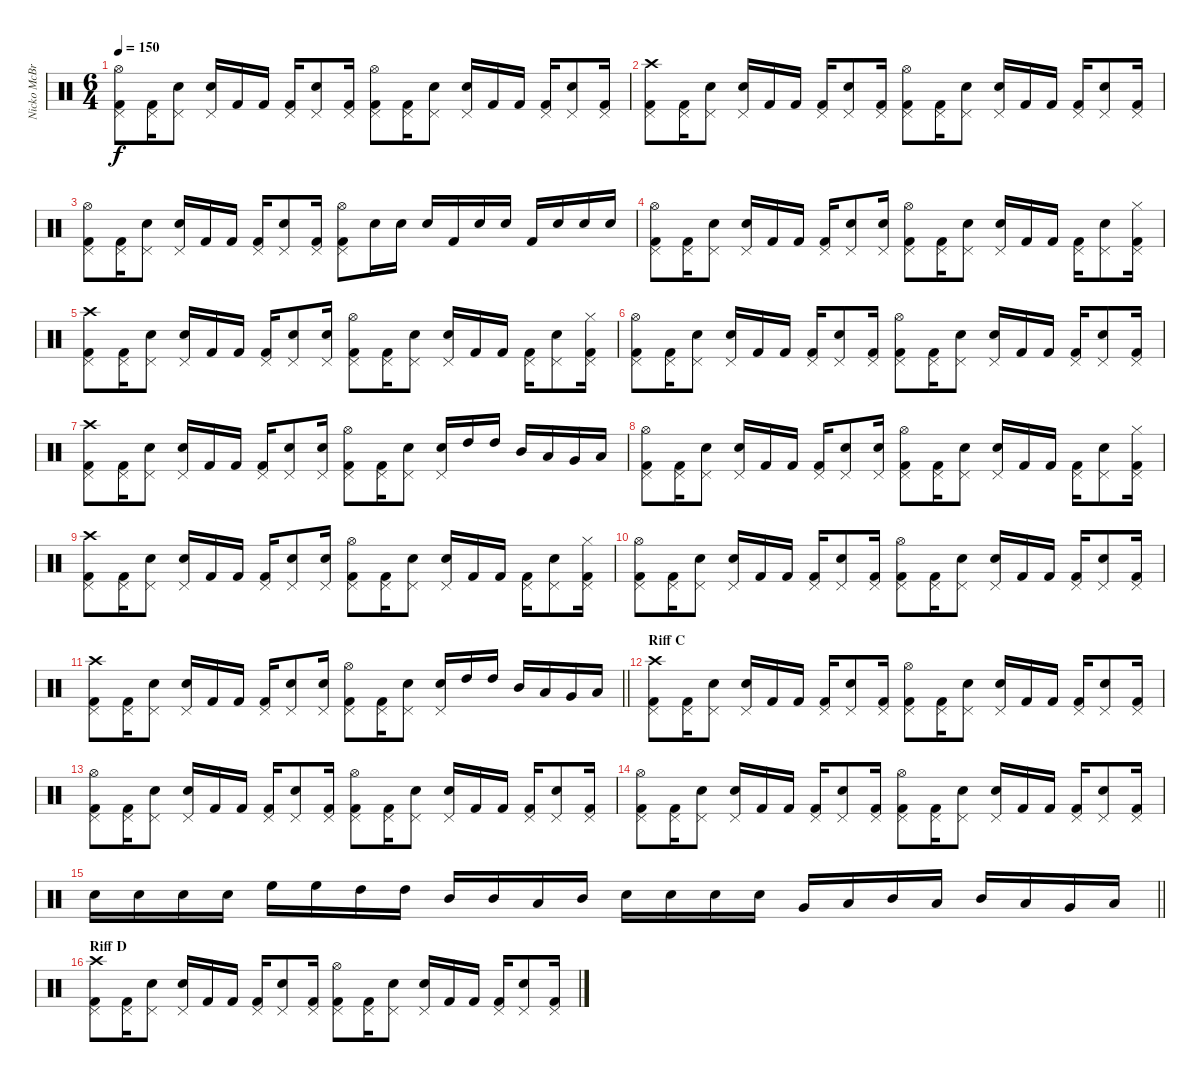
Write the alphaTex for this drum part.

\track ("Nicko McBrain" "Nicko McBr") {instrument percussion}
\staff {score}
\articulation defaults
\ts (6 4)
\tempo 150
\clef neutral
\ks c
("Kick (hit) 2" "Pedal Hi-Hat (hit)" "Hi-Hat (open)").8{dy f} ("Kick (hit) 2" "Pedal Hi-Hat (hit)").16 ("Snare (hit) 2" "Pedal Hi-Hat (hit)").8 ("Snare (hit) 2" "Pedal Hi-Hat (hit)").16 "Kick (hit) 2".16 "Kick (hit) 2".16 ("Kick (hit) 2" "Pedal Hi-Hat (hit)").16 ("Snare (hit) 2" "Pedal Hi-Hat (hit)").8 ("Kick (hit) 2" "Pedal Hi-Hat (hit)").16 ("Kick (hit) 2" "Pedal Hi-Hat (hit)" "Hi-Hat (open)").8 ("Kick (hit) 2" "Pedal Hi-Hat (hit)").16 ("Snare (hit) 2" "Pedal Hi-Hat (hit)").8 ("Snare (hit) 2" "Pedal Hi-Hat (hit)").16 "Kick (hit) 2".16 "Kick (hit) 2".16 ("Kick (hit) 2" "Pedal Hi-Hat (hit)").16 ("Snare (hit) 2" "Pedal Hi-Hat (hit)").8 ("Kick (hit) 2" "Pedal Hi-Hat (hit)").16 |
("Kick (hit) 2" "Pedal Hi-Hat (hit)" "Crash high (hit)").8 ("Kick (hit) 2" "Pedal Hi-Hat (hit)").16 ("Snare (hit) 2" "Pedal Hi-Hat (hit)").8 ("Snare (hit) 2" "Pedal Hi-Hat (hit)").16 "Kick (hit) 2".16 "Kick (hit) 2".16 ("Kick (hit) 2" "Pedal Hi-Hat (hit)").16 ("Snare (hit) 2" "Pedal Hi-Hat (hit)").8 ("Kick (hit) 2" "Pedal Hi-Hat (hit)").16 ("Kick (hit) 2" "Pedal Hi-Hat (hit)" "Hi-Hat (open)").8 ("Kick (hit) 2" "Pedal Hi-Hat (hit)").16 ("Snare (hit) 2" "Pedal Hi-Hat (hit)").8 ("Snare (hit) 2" "Pedal Hi-Hat (hit)").16 "Kick (hit) 2".16 "Kick (hit) 2".16 ("Kick (hit) 2" "Pedal Hi-Hat (hit)").16 ("Snare (hit) 2" "Pedal Hi-Hat (hit)").8 ("Kick (hit) 2" "Pedal Hi-Hat (hit)").16 |
("Kick (hit) 2" "Pedal Hi-Hat (hit)" "Hi-Hat (open)").8 ("Kick (hit) 2" "Pedal Hi-Hat (hit)").16 ("Snare (hit) 2" "Pedal Hi-Hat (hit)").8 ("Snare (hit) 2" "Pedal Hi-Hat (hit)").16 "Kick (hit) 2".16 "Kick (hit) 2".16 ("Kick (hit) 2" "Pedal Hi-Hat (hit)").16 ("Snare (hit) 2" "Pedal Hi-Hat (hit)").8 ("Kick (hit) 2" "Pedal Hi-Hat (hit)").16 ("Kick (hit) 2" "Pedal Hi-Hat (hit)" "Hi-Hat (open)").8 "Snare (hit) 2".16 "Snare (hit) 2".16 "Snare (hit) 2".16 "Kick (hit) 2".16 "Snare (hit) 2".16 "Snare (hit) 2".16 "Kick (hit) 2".16 "Snare (hit) 2".16 "Snare (hit) 2".16 "Snare (hit) 2".16 |
("Kick (hit) 2" "Pedal Hi-Hat (hit)" "Hi-Hat (open)").8 ("Kick (hit) 2" "Pedal Hi-Hat (hit)").16 ("Snare (hit) 2" "Pedal Hi-Hat (hit)").8 ("Snare (hit) 2" "Pedal Hi-Hat (hit)").16 "Kick (hit) 2".16 "Kick (hit) 2".16 ("Kick (hit) 2" "Pedal Hi-Hat (hit)").16 ("Snare (hit) 2" "Pedal Hi-Hat (hit)").8 ("Snare (hit) 2" "Pedal Hi-Hat (hit)").16 ("Kick (hit) 2" "Pedal Hi-Hat (hit)" "Hi-Hat (open)").8 ("Kick (hit) 2" "Pedal Hi-Hat (hit)").16 ("Snare (hit) 2" "Pedal Hi-Hat (hit)").8 ("Snare (hit) 2" "Pedal Hi-Hat (hit)").16 "Kick (hit) 2".16 "Kick (hit) 2".16 ("Kick (hit) 2" "Pedal Hi-Hat (hit)").16 ("Snare (hit) 2" "Pedal Hi-Hat (hit)").8 ("Kick (hit) 2" "Pedal Hi-Hat (hit)" "Hi-Hat (closed)").16 |
("Kick (hit) 2" "Pedal Hi-Hat (hit)" "Crash high (hit)").8 ("Kick (hit) 2" "Pedal Hi-Hat (hit)").16 ("Snare (hit) 2" "Pedal Hi-Hat (hit)").8 ("Snare (hit) 2" "Pedal Hi-Hat (hit)").16 "Kick (hit) 2".16 "Kick (hit) 2".16 ("Kick (hit) 2" "Pedal Hi-Hat (hit)").16 ("Snare (hit) 2" "Pedal Hi-Hat (hit)").8 ("Snare (hit) 2" "Pedal Hi-Hat (hit)").16 ("Kick (hit) 2" "Pedal Hi-Hat (hit)" "Hi-Hat (open)").8 ("Kick (hit) 2" "Pedal Hi-Hat (hit)").16 ("Snare (hit) 2" "Pedal Hi-Hat (hit)").8 ("Snare (hit) 2" "Pedal Hi-Hat (hit)").16 "Kick (hit) 2".16 "Kick (hit) 2".16 ("Kick (hit) 2" "Pedal Hi-Hat (hit)").16 ("Snare (hit) 2" "Pedal Hi-Hat (hit)").8 ("Kick (hit) 2" "Pedal Hi-Hat (hit)" "Hi-Hat (closed)").16 |
("Kick (hit) 2" "Pedal Hi-Hat (hit)" "Hi-Hat (open)").8 ("Kick (hit) 2" "Pedal Hi-Hat (hit)").16 ("Snare (hit) 2" "Pedal Hi-Hat (hit)").8 ("Snare (hit) 2" "Pedal Hi-Hat (hit)").16 "Kick (hit) 2".16 "Kick (hit) 2".16 ("Kick (hit) 2" "Pedal Hi-Hat (hit)").16 ("Snare (hit) 2" "Pedal Hi-Hat (hit)").8 ("Kick (hit) 2" "Pedal Hi-Hat (hit)").16 ("Kick (hit) 2" "Pedal Hi-Hat (hit)" "Hi-Hat (open)").8 ("Kick (hit) 2" "Pedal Hi-Hat (hit)").16 ("Snare (hit) 2" "Pedal Hi-Hat (hit)").8 ("Snare (hit) 2" "Pedal Hi-Hat (hit)").16 "Kick (hit) 2".16 "Kick (hit) 2".16 ("Kick (hit) 2" "Pedal Hi-Hat (hit)").16 ("Snare (hit) 2" "Pedal Hi-Hat (hit)").8 ("Kick (hit) 2" "Pedal Hi-Hat (hit)").16 |
("Kick (hit) 2" "Pedal Hi-Hat (hit)" "Crash high (hit)").8 ("Kick (hit) 2" "Pedal Hi-Hat (hit)").16 ("Snare (hit) 2" "Pedal Hi-Hat (hit)").8 ("Snare (hit) 2" "Pedal Hi-Hat (hit)").16 "Kick (hit) 2".16 "Kick (hit) 2".16 ("Kick (hit) 2" "Pedal Hi-Hat (hit)").16 ("Snare (hit) 2" "Pedal Hi-Hat (hit)").8 ("Snare (hit) 2" "Pedal Hi-Hat (hit)").16 ("Kick (hit) 2" "Pedal Hi-Hat (hit)" "Hi-Hat (open)").8 ("Kick (hit) 2" "Pedal Hi-Hat (hit)").16 ("Snare (hit) 2" "Pedal Hi-Hat (hit)").8 ("Snare (hit) 2" "Pedal Hi-Hat (hit)").16 "High Tom (hit)".16 "High Tom (hit)".16 "Mid Tom (hit)".16 "Low Tom (hit)".16 "Very Low Tom (hit)".16 "Low Floor Tom (hit)".16 |
("Kick (hit) 2" "Pedal Hi-Hat (hit)" "Hi-Hat (open)").8 ("Kick (hit) 2" "Pedal Hi-Hat (hit)").16 ("Snare (hit) 2" "Pedal Hi-Hat (hit)").8 ("Snare (hit) 2" "Pedal Hi-Hat (hit)").16 "Kick (hit) 2".16 "Kick (hit) 2".16 ("Kick (hit) 2" "Pedal Hi-Hat (hit)").16 ("Snare (hit) 2" "Pedal Hi-Hat (hit)").8 ("Snare (hit) 2" "Pedal Hi-Hat (hit)").16 ("Kick (hit) 2" "Pedal Hi-Hat (hit)" "Hi-Hat (open)").8 ("Kick (hit) 2" "Pedal Hi-Hat (hit)").16 ("Snare (hit) 2" "Pedal Hi-Hat (hit)").8 ("Snare (hit) 2" "Pedal Hi-Hat (hit)").16 "Kick (hit) 2".16 "Kick (hit) 2".16 ("Kick (hit) 2" "Pedal Hi-Hat (hit)").16 ("Snare (hit) 2" "Pedal Hi-Hat (hit)").8 ("Kick (hit) 2" "Pedal Hi-Hat (hit)" "Hi-Hat (closed)").16 |
("Kick (hit) 2" "Pedal Hi-Hat (hit)" "Crash high (hit)").8 ("Kick (hit) 2" "Pedal Hi-Hat (hit)").16 ("Snare (hit) 2" "Pedal Hi-Hat (hit)").8 ("Snare (hit) 2" "Pedal Hi-Hat (hit)").16 "Kick (hit) 2".16 "Kick (hit) 2".16 ("Kick (hit) 2" "Pedal Hi-Hat (hit)").16 ("Snare (hit) 2" "Pedal Hi-Hat (hit)").8 ("Snare (hit) 2" "Pedal Hi-Hat (hit)").16 ("Kick (hit) 2" "Pedal Hi-Hat (hit)" "Hi-Hat (open)").8 ("Kick (hit) 2" "Pedal Hi-Hat (hit)").16 ("Snare (hit) 2" "Pedal Hi-Hat (hit)").8 ("Snare (hit) 2" "Pedal Hi-Hat (hit)").16 "Kick (hit) 2".16 "Kick (hit) 2".16 ("Kick (hit) 2" "Pedal Hi-Hat (hit)").16 ("Snare (hit) 2" "Pedal Hi-Hat (hit)").8 ("Kick (hit) 2" "Pedal Hi-Hat (hit)" "Hi-Hat (closed)").16 |
("Kick (hit) 2" "Pedal Hi-Hat (hit)" "Hi-Hat (open)").8 ("Kick (hit) 2" "Pedal Hi-Hat (hit)").16 ("Snare (hit) 2" "Pedal Hi-Hat (hit)").8 ("Snare (hit) 2" "Pedal Hi-Hat (hit)").16 "Kick (hit) 2".16 "Kick (hit) 2".16 ("Kick (hit) 2" "Pedal Hi-Hat (hit)").16 ("Snare (hit) 2" "Pedal Hi-Hat (hit)").8 ("Kick (hit) 2" "Pedal Hi-Hat (hit)").16 ("Kick (hit) 2" "Pedal Hi-Hat (hit)" "Hi-Hat (open)").8 ("Kick (hit) 2" "Pedal Hi-Hat (hit)").16 ("Snare (hit) 2" "Pedal Hi-Hat (hit)").8 ("Snare (hit) 2" "Pedal Hi-Hat (hit)").16 "Kick (hit) 2".16 "Kick (hit) 2".16 ("Kick (hit) 2" "Pedal Hi-Hat (hit)").16 ("Snare (hit) 2" "Pedal Hi-Hat (hit)").8 ("Kick (hit) 2" "Pedal Hi-Hat (hit)").16 |
\barLineRight lightlight
("Kick (hit) 2" "Pedal Hi-Hat (hit)" "Crash high (hit)").8 ("Kick (hit) 2" "Pedal Hi-Hat (hit)").16 ("Snare (hit) 2" "Pedal Hi-Hat (hit)").8 ("Snare (hit) 2" "Pedal Hi-Hat (hit)").16 "Kick (hit) 2".16 "Kick (hit) 2".16 ("Kick (hit) 2" "Pedal Hi-Hat (hit)").16 ("Snare (hit) 2" "Pedal Hi-Hat (hit)").8 ("Snare (hit) 2" "Pedal Hi-Hat (hit)").16 ("Kick (hit) 2" "Pedal Hi-Hat (hit)" "Hi-Hat (open)").8 ("Kick (hit) 2" "Pedal Hi-Hat (hit)").16 ("Snare (hit) 2" "Pedal Hi-Hat (hit)").8 ("Snare (hit) 2" "Pedal Hi-Hat (hit)").16 "High Tom (hit)".16 "High Tom (hit)".16 "Mid Tom (hit)".16 "Low Tom (hit)".16 "Very Low Tom (hit)".16 "Low Floor Tom (hit)".16 |
\section ("" "Riff C")
("Kick (hit) 2" "Pedal Hi-Hat (hit)" "Crash high (hit)").8 ("Kick (hit) 2" "Pedal Hi-Hat (hit)").16 ("Snare (hit) 2" "Pedal Hi-Hat (hit)").8 ("Snare (hit) 2" "Pedal Hi-Hat (hit)").16 "Kick (hit) 2".16 "Kick (hit) 2".16 ("Kick (hit) 2" "Pedal Hi-Hat (hit)").16 ("Snare (hit) 2" "Pedal Hi-Hat (hit)").8 ("Kick (hit) 2" "Pedal Hi-Hat (hit)").16 ("Kick (hit) 2" "Pedal Hi-Hat (hit)" "Hi-Hat (open)").8 ("Kick (hit) 2" "Pedal Hi-Hat (hit)").16 ("Snare (hit) 2" "Pedal Hi-Hat (hit)").8 ("Snare (hit) 2" "Pedal Hi-Hat (hit)").16 "Kick (hit) 2".16 "Kick (hit) 2".16 ("Kick (hit) 2" "Pedal Hi-Hat (hit)").16 ("Snare (hit) 2" "Pedal Hi-Hat (hit)").8 ("Kick (hit) 2" "Pedal Hi-Hat (hit)").16 |
("Kick (hit) 2" "Pedal Hi-Hat (hit)" "Hi-Hat (open)").8 ("Kick (hit) 2" "Pedal Hi-Hat (hit)").16 ("Snare (hit) 2" "Pedal Hi-Hat (hit)").8 ("Snare (hit) 2" "Pedal Hi-Hat (hit)").16 "Kick (hit) 2".16 "Kick (hit) 2".16 ("Kick (hit) 2" "Pedal Hi-Hat (hit)").16 ("Snare (hit) 2" "Pedal Hi-Hat (hit)").8 ("Kick (hit) 2" "Pedal Hi-Hat (hit)").16 ("Kick (hit) 2" "Pedal Hi-Hat (hit)" "Hi-Hat (open)").8 ("Kick (hit) 2" "Pedal Hi-Hat (hit)").16 ("Snare (hit) 2" "Pedal Hi-Hat (hit)").8 ("Snare (hit) 2" "Pedal Hi-Hat (hit)").16 "Kick (hit) 2".16 "Kick (hit) 2".16 ("Kick (hit) 2" "Pedal Hi-Hat (hit)").16 ("Snare (hit) 2" "Pedal Hi-Hat (hit)").8 ("Kick (hit) 2" "Pedal Hi-Hat (hit)").16 |
("Kick (hit) 2" "Pedal Hi-Hat (hit)" "Hi-Hat (open)").8 ("Kick (hit) 2" "Pedal Hi-Hat (hit)").16 ("Snare (hit) 2" "Pedal Hi-Hat (hit)").8 ("Snare (hit) 2" "Pedal Hi-Hat (hit)").16 "Kick (hit) 2".16 "Kick (hit) 2".16 ("Kick (hit) 2" "Pedal Hi-Hat (hit)").16 ("Snare (hit) 2" "Pedal Hi-Hat (hit)").8 ("Kick (hit) 2" "Pedal Hi-Hat (hit)").16 ("Kick (hit) 2" "Pedal Hi-Hat (hit)" "Hi-Hat (open)").8 ("Kick (hit) 2" "Pedal Hi-Hat (hit)").16 ("Snare (hit) 2" "Pedal Hi-Hat (hit)").8 ("Snare (hit) 2" "Pedal Hi-Hat (hit)").16 "Kick (hit) 2".16 "Kick (hit) 2".16 ("Kick (hit) 2" "Pedal Hi-Hat (hit)").16 ("Snare (hit) 2" "Pedal Hi-Hat (hit)").8 ("Kick (hit) 2" "Pedal Hi-Hat (hit)").16 |
\barLineRight lightlight "Snare (hit) 2".16 "Snare (hit) 2".16 "Snare (hit) 2".16 "Snare (hit) 2".16 "High Floor Tom (hit)".16 "High Floor Tom (hit)".16 "High Tom (hit)".16 "High Tom (hit)".16 "Mid Tom (hit)".16 "Mid Tom (hit)".16 "Low Tom (hit)".16 "Mid Tom (hit)".16 "Snare (hit) 2".16 "Snare (hit) 2".16 "Snare (hit) 2".16 "Snare (hit) 2".16 "Very Low Tom (hit)".16 "Low Tom (hit)".16 "Mid Tom (hit)".16 "Low Tom (hit)".16 "Mid Tom (hit)".16 "Low Tom (hit)".16 "Very Low Tom (hit)".16 "Low Floor Tom (hit)".16
|
\section ("" "Riff D")
("Kick (hit) 2" "Pedal Hi-Hat (hit)" "Crash high (hit)").8 ("Kick (hit) 2" "Pedal Hi-Hat (hit)").16 ("Snare (hit) 2" "Pedal Hi-Hat (hit)").8 ("Snare (hit) 2" "Pedal Hi-Hat (hit)").16 "Kick (hit) 2".16 "Kick (hit) 2".16 ("Kick (hit) 2" "Pedal Hi-Hat (hit)").16 ("Snare (hit) 2" "Pedal Hi-Hat (hit)").8 ("Kick (hit) 2" "Pedal Hi-Hat (hit)").16 ("Kick (hit) 2" "Pedal Hi-Hat (hit)" "Hi-Hat (open)").8 ("Kick (hit) 2" "Pedal Hi-Hat (hit)").16 ("Snare (hit) 2" "Pedal Hi-Hat (hit)").8 ("Snare (hit) 2" "Pedal Hi-Hat (hit)").16 "Kick (hit) 2".16 "Kick (hit) 2".16 ("Kick (hit) 2" "Pedal Hi-Hat (hit)").16 ("Snare (hit) 2" "Pedal Hi-Hat (hit)").8 ("Kick (hit) 2" "Pedal Hi-Hat (hit)").16
